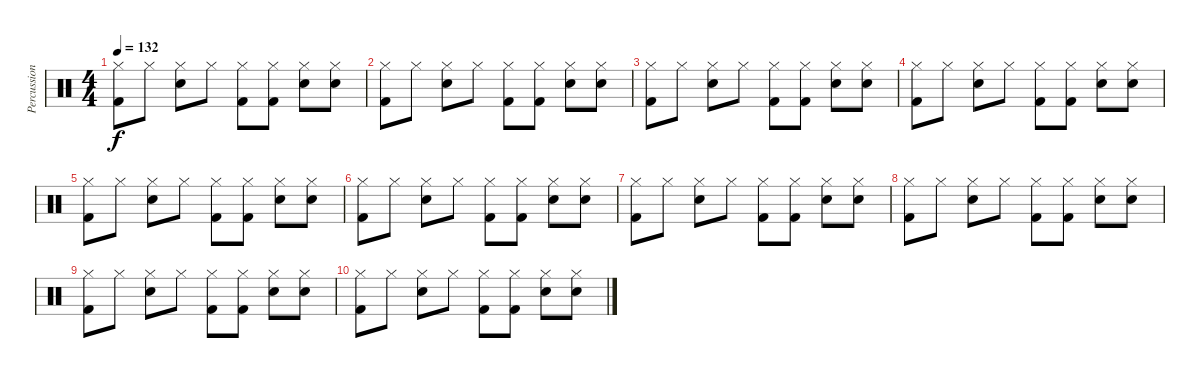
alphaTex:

\track ("Percussions" "Percussion") {instrument percussion}
\staff {score}
\articulation defaults
\ts (4 4)
\tempo 132
\clef neutral
\ks c
("Hi-Hat (closed)" "Kick (hit) 2").8{dy f} "Hi-Hat (closed)".8 ("Hi-Hat (closed)" "Snare (hit) 2").8 "Hi-Hat (closed)".8 ("Hi-Hat (closed)" "Kick (hit) 2").8 ("Hi-Hat (closed)" "Kick (hit) 2").8 ("Hi-Hat (closed)" "Snare (hit) 2").8 ("Hi-Hat (closed)" "Snare (hit) 2").8 |
("Hi-Hat (closed)" "Kick (hit) 2").8 "Hi-Hat (closed)".8 ("Hi-Hat (closed)" "Snare (hit) 2").8 "Hi-Hat (closed)".8 ("Hi-Hat (closed)" "Kick (hit) 2").8 ("Hi-Hat (closed)" "Kick (hit) 2").8 ("Hi-Hat (closed)" "Snare (hit) 2").8 ("Hi-Hat (closed)" "Snare (hit) 2").8 |
("Hi-Hat (closed)" "Kick (hit) 2").8 "Hi-Hat (closed)".8 ("Hi-Hat (closed)" "Snare (hit) 2").8 "Hi-Hat (closed)".8 ("Hi-Hat (closed)" "Kick (hit) 2").8 ("Hi-Hat (closed)" "Kick (hit) 2").8 ("Hi-Hat (closed)" "Snare (hit) 2").8 ("Hi-Hat (closed)" "Snare (hit) 2").8 |
("Hi-Hat (closed)" "Kick (hit) 2").8 "Hi-Hat (closed)".8 ("Hi-Hat (closed)" "Snare (hit) 2").8 "Hi-Hat (closed)".8 ("Hi-Hat (closed)" "Kick (hit) 2").8 ("Hi-Hat (closed)" "Kick (hit) 2").8 ("Hi-Hat (closed)" "Snare (hit) 2").8 ("Hi-Hat (closed)" "Snare (hit) 2").8 |
("Hi-Hat (closed)" "Kick (hit) 2").8 "Hi-Hat (closed)".8 ("Hi-Hat (closed)" "Snare (hit) 2").8 "Hi-Hat (closed)".8 ("Hi-Hat (closed)" "Kick (hit) 2").8 ("Hi-Hat (closed)" "Kick (hit) 2").8 ("Hi-Hat (closed)" "Snare (hit) 2").8 ("Hi-Hat (closed)" "Snare (hit) 2").8 |
("Hi-Hat (closed)" "Kick (hit) 2").8 "Hi-Hat (closed)".8 ("Hi-Hat (closed)" "Snare (hit) 2").8 "Hi-Hat (closed)".8 ("Hi-Hat (closed)" "Kick (hit) 2").8 ("Hi-Hat (closed)" "Kick (hit) 2").8 ("Hi-Hat (closed)" "Snare (hit) 2").8 ("Hi-Hat (closed)" "Snare (hit) 2").8 |
("Hi-Hat (closed)" "Kick (hit) 2").8 "Hi-Hat (closed)".8 ("Hi-Hat (closed)" "Snare (hit) 2").8 "Hi-Hat (closed)".8 ("Hi-Hat (closed)" "Kick (hit) 2").8 ("Hi-Hat (closed)" "Kick (hit) 2").8 ("Hi-Hat (closed)" "Snare (hit) 2").8 ("Hi-Hat (closed)" "Snare (hit) 2").8 |
("Hi-Hat (closed)" "Kick (hit) 2").8 "Hi-Hat (closed)".8 ("Hi-Hat (closed)" "Snare (hit) 2").8 "Hi-Hat (closed)".8 ("Hi-Hat (closed)" "Kick (hit) 2").8 ("Hi-Hat (closed)" "Kick (hit) 2").8 ("Hi-Hat (closed)" "Snare (hit) 2").8 ("Hi-Hat (closed)" "Snare (hit) 2").8 |
("Hi-Hat (closed)" "Kick (hit) 2").8 "Hi-Hat (closed)".8 ("Hi-Hat (closed)" "Snare (hit) 2").8 "Hi-Hat (closed)".8 ("Hi-Hat (closed)" "Kick (hit) 2").8 ("Hi-Hat (closed)" "Kick (hit) 2").8 ("Hi-Hat (closed)" "Snare (hit) 2").8 ("Hi-Hat (closed)" "Snare (hit) 2").8 |
("Hi-Hat (closed)" "Kick (hit) 2").8 "Hi-Hat (closed)".8 ("Hi-Hat (closed)" "Snare (hit) 2").8 "Hi-Hat (closed)".8 ("Hi-Hat (closed)" "Kick (hit) 2").8 ("Hi-Hat (closed)" "Kick (hit) 2").8 ("Hi-Hat (closed)" "Snare (hit) 2").8 ("Hi-Hat (closed)" "Snare (hit) 2").8
